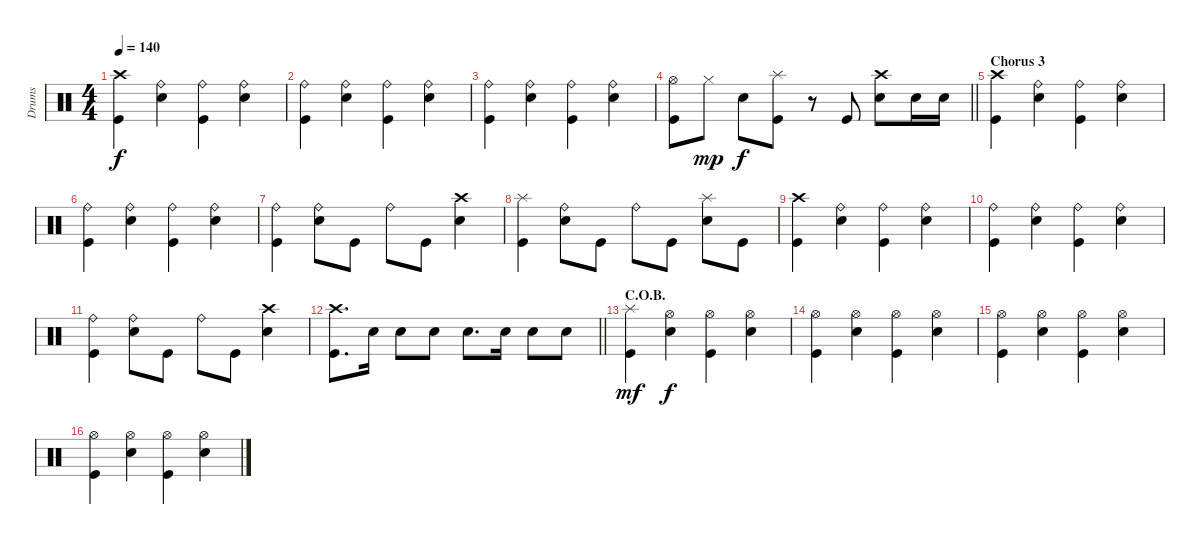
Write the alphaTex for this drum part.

\track ("Drums" "Drums") {instrument percussion}
\staff {score}
\articulation defaults
\ts (4 4)
\tempo 140
\clef neutral
\ks c
("Crash high (hit)" "Kick (hit)").4{dy f} ("Ride (bell)" "Electric Snare (hit)").4 ("Ride (bell)" "Kick (hit)").4 ("Ride (bell)" "Electric Snare (hit)").4 |
("Ride (bell)" "Kick (hit)").4 ("Ride (bell)" "Electric Snare (hit)").4 ("Ride (bell)" "Kick (hit)").4 ("Ride (bell)" "Electric Snare (hit)").4 |
("Ride (bell)" "Kick (hit)").4 ("Ride (bell)" "Electric Snare (hit)").4 ("Ride (bell)" "Kick (hit)").4 ("Ride (bell)" "Electric Snare (hit)").4 |
\barLineRight lightlight
("Hi-Hat (open)" "Kick (hit)").8 "Hi-Hat (closed)".8{dy mp} "Electric Snare (hit)".8{dy f} ("Splash (hit)" "Kick (hit)").8 r.8 "Kick (hit)".8 ("Crash high (hit)" "Electric Snare (hit)").8 "Electric Snare (hit)".16 "Electric Snare (hit)".16 |
\section ("" "Chorus 3")
("Crash high (hit)" "Kick (hit)").4 ("Ride (bell)" "Electric Snare (hit)").4 ("Ride (bell)" "Kick (hit)").4 ("Ride (bell)" "Electric Snare (hit)").4 |
("Ride (bell)" "Kick (hit)").4 ("Ride (bell)" "Electric Snare (hit)").4 ("Ride (bell)" "Kick (hit)").4 ("Ride (bell)" "Electric Snare (hit)").4 |
("Ride (bell)" "Kick (hit)").4 ("Ride (bell)" "Electric Snare (hit)").8 "Kick (hit)".8 "Ride (bell)".8 "Kick (hit)".8 ("Crash high (hit)" "Electric Snare (hit)").4 |
("Splash (hit)" "Kick (hit)").4 ("Ride (bell)" "Electric Snare (hit)").8 "Kick (hit)".8 "Ride (bell)".8 "Kick (hit)".8 ("Splash (hit)" "Electric Snare (hit)").8 "Kick (hit)".8 |
("Crash high (hit)" "Kick (hit)").4 ("Ride (bell)" "Electric Snare (hit)").4 ("Ride (bell)" "Kick (hit)").4 ("Ride (bell)" "Electric Snare (hit)").4 |
("Ride (bell)" "Kick (hit)").4 ("Ride (bell)" "Electric Snare (hit)").4 ("Ride (bell)" "Kick (hit)").4 ("Ride (bell)" "Electric Snare (hit)").4 |
("Ride (bell)" "Kick (hit)").4 ("Ride (bell)" "Electric Snare (hit)").8 "Kick (hit)".8 "Ride (bell)".8 "Kick (hit)".8 ("Crash high (hit)" "Electric Snare (hit)").4 |
\barLineRight lightlight
("Crash high (hit)" "Kick (hit)").8{d} "Electric Snare (hit)".16 "Electric Snare (hit)".8 "Electric Snare (hit)".8 "Electric Snare (hit)".8{d} "Electric Snare (hit)".16 "Electric Snare (hit)".8 "Electric Snare (hit)".8 |
\section ("" "C.O.B.")
("Splash (hit)" "Kick (hit)").4{dy mf} ("Hi-Hat (open)" "Electric Snare (hit)").4{dy f} ("Hi-Hat (open)" "Kick (hit)").4 ("Hi-Hat (open)" "Electric Snare (hit)").4 |
("Hi-Hat (open)" "Kick (hit)").4 ("Hi-Hat (open)" "Electric Snare (hit)").4 ("Hi-Hat (open)" "Kick (hit)").4 ("Hi-Hat (open)" "Electric Snare (hit)").4 |
("Hi-Hat (open)" "Kick (hit)").4 ("Hi-Hat (open)" "Electric Snare (hit)").4 ("Hi-Hat (open)" "Kick (hit)").4 ("Hi-Hat (open)" "Electric Snare (hit)").4 |
("Hi-Hat (open)" "Kick (hit)").4 ("Hi-Hat (open)" "Electric Snare (hit)").4 ("Hi-Hat (open)" "Kick (hit)").4 ("Hi-Hat (open)" "Electric Snare (hit)").4
